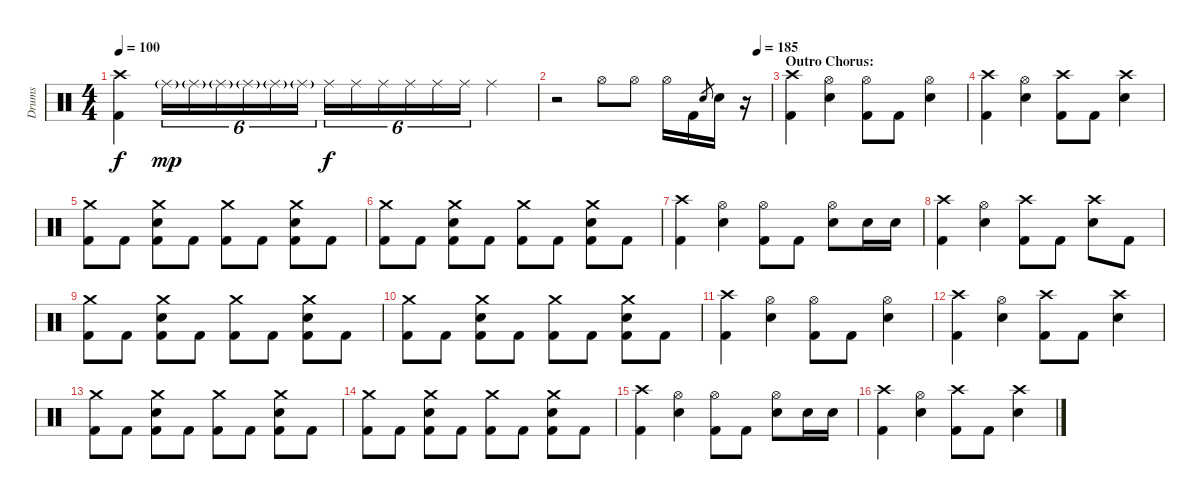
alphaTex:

\track ("Drums" "Drums") {instrument percussion}
\staff {score}
\articulation defaults
\ts (4 4)
\tempo 100
\clef neutral
\ks c
("Crash high (hit)" "Kick (hit) 2").4{dy f} "Ride (middle)"{g}.16{tu (6 4) dy mp} "Ride (middle)"{g}.16{tu (6 4)} "Ride (middle)"{g}.16{tu (6 4)} "Ride (middle)"{g}.16{tu (6 4)} "Ride (middle)"{g}.16{tu (6 4)} "Ride (middle)"{g}.16{tu (6 4)} "Ride (middle)".16{tu (6 4) dy f} "Ride (middle)".16{tu (6 4)} "Ride (middle)".16{tu (6 4)} "Ride (middle)".16{tu (6 4)} "Ride (middle)".16{tu (6 4)} "Ride (middle)".16{tu (6 4)} "Ride (middle)".4 |
\tempo (185 0.9375)
r.2 "Hi-Hat (open)".8 "Hi-Hat (open)".8 "Hi-Hat (open)".16 "Kick (hit) 2".16 "Electric Snare (hit)".8{gr} "Electric Snare (hit)".16 r.16 |
\section ("" "Outro Chorus:")
("Crash high (hit)" "Kick (hit) 2").4 ("Hi-Hat (open)" "Electric Snare (hit)").4 ("Hi-Hat (open)" "Kick (hit) 2").8 "Kick (hit) 2".8 ("Hi-Hat (open)" "Electric Snare (hit)").4 |
("Crash high (hit)" "Kick (hit) 2").4 ("Hi-Hat (open)" "Electric Snare (hit)").4 ("Crash high (hit)" "Kick (hit) 2").8 "Kick (hit) 2".8 ("Crash high (hit)" "Electric Snare (hit)").4 |
("Crash medium (hit)" "Kick (hit) 2").8 "Kick (hit) 2".8 ("Crash medium (hit)" "Electric Snare (hit)" "Kick (hit) 2").8 "Kick (hit) 2".8 ("Crash medium (hit)" "Kick (hit) 2").8 "Kick (hit) 2".8 ("Crash medium (hit)" "Electric Snare (hit)" "Kick (hit) 2").8 "Kick (hit) 2".8 |
("Crash medium (hit)" "Kick (hit) 2").8 "Kick (hit) 2".8 ("Crash medium (hit)" "Electric Snare (hit)" "Kick (hit) 2").8 "Kick (hit) 2".8 ("Crash medium (hit)" "Kick (hit) 2").8 "Kick (hit) 2".8 ("Crash medium (hit)" "Electric Snare (hit)" "Kick (hit) 2").8 "Kick (hit) 2".8 |
("Crash high (hit)" "Kick (hit) 2").4 ("Hi-Hat (open)" "Electric Snare (hit)").4 ("Hi-Hat (open)" "Kick (hit) 2").8 "Kick (hit) 2".8 ("Hi-Hat (open)" "Electric Snare (hit)").8 "Electric Snare (hit)".16 "Electric Snare (hit)".16 |
("Crash high (hit)" "Kick (hit) 2").4 ("Hi-Hat (open)" "Electric Snare (hit)").4 ("Crash high (hit)" "Kick (hit) 2").8 "Kick (hit) 2".8 ("Crash high (hit)" "Electric Snare (hit)").8 "Kick (hit) 2".8 |
("Crash medium (hit)" "Kick (hit) 2").8 "Kick (hit) 2".8 ("Crash medium (hit)" "Electric Snare (hit)" "Kick (hit) 2").8 "Kick (hit) 2".8 ("Crash medium (hit)" "Kick (hit) 2").8 "Kick (hit) 2".8 ("Crash medium (hit)" "Electric Snare (hit)" "Kick (hit) 2").8 "Kick (hit) 2".8 |
("Crash medium (hit)" "Kick (hit) 2").8 "Kick (hit) 2".8 ("Crash medium (hit)" "Electric Snare (hit)" "Kick (hit) 2").8 "Kick (hit) 2".8 ("Crash medium (hit)" "Kick (hit) 2").8 "Kick (hit) 2".8 ("Crash medium (hit)" "Electric Snare (hit)" "Kick (hit) 2").8 "Kick (hit) 2".8 |
("Crash high (hit)" "Kick (hit) 2").4 ("Hi-Hat (open)" "Electric Snare (hit)").4 ("Hi-Hat (open)" "Kick (hit) 2").8 "Kick (hit) 2".8 ("Hi-Hat (open)" "Electric Snare (hit)").4 |
("Crash high (hit)" "Kick (hit) 2").4 ("Hi-Hat (open)" "Electric Snare (hit)").4 ("Crash high (hit)" "Kick (hit) 2").8 "Kick (hit) 2".8 ("Crash high (hit)" "Electric Snare (hit)").4 |
("Crash medium (hit)" "Kick (hit) 2").8 "Kick (hit) 2".8 ("Crash medium (hit)" "Electric Snare (hit)" "Kick (hit) 2").8 "Kick (hit) 2".8 ("Crash medium (hit)" "Kick (hit) 2").8 "Kick (hit) 2".8 ("Crash medium (hit)" "Electric Snare (hit)" "Kick (hit) 2").8 "Kick (hit) 2".8 |
("Crash medium (hit)" "Kick (hit) 2").8 "Kick (hit) 2".8 ("Crash medium (hit)" "Electric Snare (hit)" "Kick (hit) 2").8 "Kick (hit) 2".8 ("Crash medium (hit)" "Kick (hit) 2").8 "Kick (hit) 2".8 ("Crash medium (hit)" "Electric Snare (hit)" "Kick (hit) 2").8 "Kick (hit) 2".8 |
("Crash high (hit)" "Kick (hit) 2").4 ("Hi-Hat (open)" "Electric Snare (hit)").4 ("Hi-Hat (open)" "Kick (hit) 2").8 "Kick (hit) 2".8 ("Hi-Hat (open)" "Electric Snare (hit)").8 "Electric Snare (hit)".16 "Electric Snare (hit)".16 |
("Crash high (hit)" "Kick (hit) 2").4 ("Hi-Hat (open)" "Electric Snare (hit)").4 ("Crash high (hit)" "Kick (hit) 2").8 "Kick (hit) 2".8 ("Crash high (hit)" "Electric Snare (hit)").4
